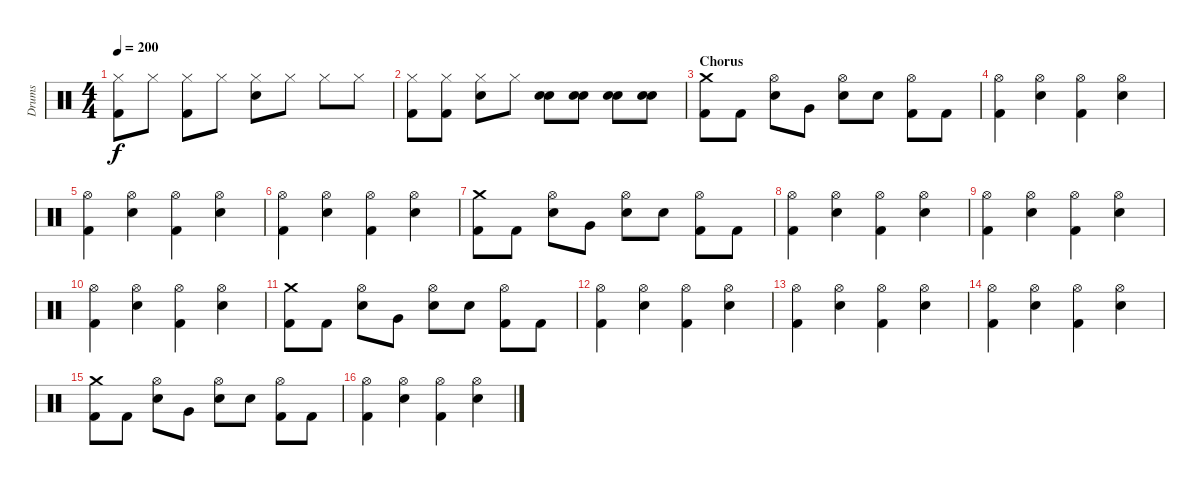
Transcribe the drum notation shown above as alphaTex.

\track ("Drums" "Drums") {instrument percussion}
\staff {score}
\articulation defaults
\ts (4 4)
\tempo 200
\clef neutral
\ks c
("Hi-Hat (closed)" "Kick (hit) 2").8{dy f} "Hi-Hat (closed)".8 ("Hi-Hat (closed)" "Kick (hit) 2").8 "Hi-Hat (closed)".8 ("Hi-Hat (closed)" "Snare (hit) 2").8 "Hi-Hat (closed)".8 "Hi-Hat (closed)".8 "Hi-Hat (closed)".8 |
("Hi-Hat (closed)" "Kick (hit) 2").8 ("Hi-Hat (closed)" "Kick (hit) 2").8 ("Hi-Hat (closed)" "Snare (hit) 2").8 "Hi-Hat (closed)".8 ("Snare (hit) 2" "Snare (hit) 2").8 ("Snare (hit) 2" "Snare (hit) 2").8 ("Snare (hit) 2" "Snare (hit) 2").8 ("Snare (hit) 2" "Snare (hit) 2").8 |
\section ("" "Chorus")
("Crash medium (hit)" "Kick (hit) 2").8 "Kick (hit) 2".8 ("Hi-Hat (open)" "Snare (hit) 2").8 "Very Low Tom (hit)".8 ("Hi-Hat (open)" "Snare (hit) 2").8 "Snare (hit) 2".8 ("Hi-Hat (open)" "Kick (hit) 2").8 "Kick (hit) 2".8 |
("Hi-Hat (open)" "Kick (hit) 2").4 ("Hi-Hat (open)" "Snare (hit) 2").4 ("Hi-Hat (open)" "Kick (hit) 2").4 ("Hi-Hat (open)" "Snare (hit) 2").4 |
("Hi-Hat (open)" "Kick (hit) 2").4 ("Hi-Hat (open)" "Snare (hit) 2").4 ("Hi-Hat (open)" "Kick (hit) 2").4 ("Hi-Hat (open)" "Snare (hit) 2").4 |
("Hi-Hat (open)" "Kick (hit) 2").4 ("Hi-Hat (open)" "Snare (hit) 2").4 ("Hi-Hat (open)" "Kick (hit) 2").4 ("Hi-Hat (open)" "Snare (hit) 2").4 |
("Crash medium (hit)" "Kick (hit) 2").8 "Kick (hit) 2".8 ("Hi-Hat (open)" "Snare (hit) 2").8 "Very Low Tom (hit)".8 ("Hi-Hat (open)" "Snare (hit) 2").8 "Snare (hit) 2".8 ("Hi-Hat (open)" "Kick (hit) 2").8 "Kick (hit) 2".8 |
("Hi-Hat (open)" "Kick (hit) 2").4 ("Hi-Hat (open)" "Snare (hit) 2").4 ("Hi-Hat (open)" "Kick (hit) 2").4 ("Hi-Hat (open)" "Snare (hit) 2").4 |
("Hi-Hat (open)" "Kick (hit) 2").4 ("Hi-Hat (open)" "Snare (hit) 2").4 ("Hi-Hat (open)" "Kick (hit) 2").4 ("Hi-Hat (open)" "Snare (hit) 2").4 |
("Hi-Hat (open)" "Kick (hit) 2").4 ("Hi-Hat (open)" "Snare (hit) 2").4 ("Hi-Hat (open)" "Kick (hit) 2").4 ("Hi-Hat (open)" "Snare (hit) 2").4 |
("Crash medium (hit)" "Kick (hit) 2").8 "Kick (hit) 2".8 ("Hi-Hat (open)" "Snare (hit) 2").8 "Very Low Tom (hit)".8 ("Hi-Hat (open)" "Snare (hit) 2").8 "Snare (hit) 2".8 ("Hi-Hat (open)" "Kick (hit) 2").8 "Kick (hit) 2".8 |
("Hi-Hat (open)" "Kick (hit) 2").4 ("Hi-Hat (open)" "Snare (hit) 2").4 ("Hi-Hat (open)" "Kick (hit) 2").4 ("Hi-Hat (open)" "Snare (hit) 2").4 |
("Hi-Hat (open)" "Kick (hit) 2").4 ("Hi-Hat (open)" "Snare (hit) 2").4 ("Hi-Hat (open)" "Kick (hit) 2").4 ("Hi-Hat (open)" "Snare (hit) 2").4 |
("Hi-Hat (open)" "Kick (hit) 2").4 ("Hi-Hat (open)" "Snare (hit) 2").4 ("Hi-Hat (open)" "Kick (hit) 2").4 ("Hi-Hat (open)" "Snare (hit) 2").4 |
("Crash medium (hit)" "Kick (hit) 2").8 "Kick (hit) 2".8 ("Hi-Hat (open)" "Snare (hit) 2").8 "Very Low Tom (hit)".8 ("Hi-Hat (open)" "Snare (hit) 2").8 "Snare (hit) 2".8 ("Hi-Hat (open)" "Kick (hit) 2").8 "Kick (hit) 2".8 |
("Hi-Hat (open)" "Kick (hit) 2").4 ("Hi-Hat (open)" "Snare (hit) 2").4 ("Hi-Hat (open)" "Kick (hit) 2").4 ("Hi-Hat (open)" "Snare (hit) 2").4
